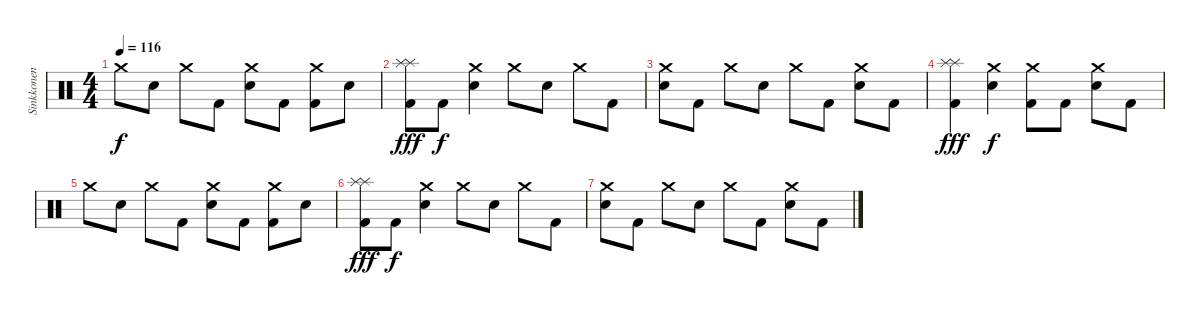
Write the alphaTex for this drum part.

\track ("Sinkkonen" "Sinkkonen") {instrument percussion}
\staff {score}
\articulation defaults
\ts (4 4)
\tempo 116
\clef neutral
\ks c "Crash medium (hit)".8{dy f} "Snare (hit) 2".8 "Crash medium (hit)".8 "Kick (hit) 2".8
("Crash medium (hit)" "Snare (hit) 2").8 "Kick (hit) 2".8 ("Kick (hit) 2" "Crash medium (hit)").8 "Snare (hit) 2".8 |
("Kick (hit) 2" "Splash (hit)" "Splash (hit)").8{dy fff volume 2} "Kick (hit) 2".8{dy f} ("Crash medium (hit)" "Snare (hit) 2").4 "Crash medium (hit)".8 "Snare (hit) 2".8 "Crash medium (hit)".8 "Kick (hit) 2".8 |
("Crash medium (hit)" "Snare (hit) 2").8 "Kick (hit) 2".8 "Crash medium (hit)".8 "Snare (hit) 2".8 "Crash medium (hit)".8 "Kick (hit) 2".8 ("Crash medium (hit)" "Snare (hit) 2").8 "Kick (hit) 2".8 |
("Kick (hit) 2" "Splash (hit)" "Splash (hit)").4{dy fff} ("Crash medium (hit)" "Snare (hit) 2").4{dy f} ("Kick (hit) 2" "Crash medium (hit)").8 "Kick (hit) 2".8 ("Crash medium (hit)" "Snare (hit) 2").8 "Kick (hit) 2".8 |
"Crash medium (hit)".8 "Snare (hit) 2".8 "Crash medium (hit)".8 "Kick (hit) 2".8 ("Crash medium (hit)" "Snare (hit) 2").8 "Kick (hit) 2".8 ("Kick (hit) 2" "Crash medium (hit)").8 "Snare (hit) 2".8 |
("Kick (hit) 2" "Splash (hit)" "Splash (hit)").8{dy fff volume 0} "Kick (hit) 2".8{dy f} ("Crash medium (hit)" "Snare (hit) 2").4 "Crash medium (hit)".8 "Snare (hit) 2".8 "Crash medium (hit)".8 "Kick (hit) 2".8 |
("Crash medium (hit)" "Snare (hit) 2").8 "Kick (hit) 2".8 "Crash medium (hit)".8 "Snare (hit) 2".8 "Crash medium (hit)".8 "Kick (hit) 2".8 ("Crash medium (hit)" "Snare (hit) 2").8 "Kick (hit) 2".8
